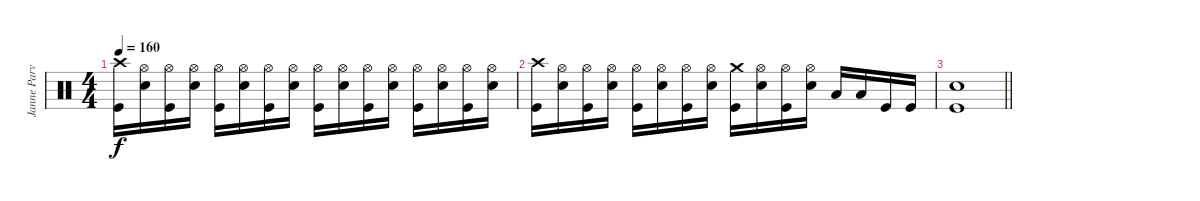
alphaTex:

\track ("Janne Parviainen" "Janne Parv") {instrument percussion}
\staff {score}
\articulation defaults
\ts (4 4)
\tempo 160
\clef neutral
\ks c
("Crash high (hit)" "Kick (hit)").16{dy f} ("Hi-Hat (open)" "Electric Snare (hit)").16 ("Hi-Hat (open)" "Kick (hit)").16 ("Hi-Hat (open)" "Electric Snare (hit)").16 ("Hi-Hat (open)" "Kick (hit)").16 ("Hi-Hat (open)" "Electric Snare (hit)").16 ("Hi-Hat (open)" "Kick (hit)").16 ("Hi-Hat (open)" "Electric Snare (hit)").16 ("Hi-Hat (open)" "Kick (hit)").16 ("Hi-Hat (open)" "Electric Snare (hit)").16 ("Hi-Hat (open)" "Kick (hit)").16 ("Hi-Hat (open)" "Electric Snare (hit)").16 ("Hi-Hat (open)" "Kick (hit)").16 ("Hi-Hat (open)" "Electric Snare (hit)").16 ("Hi-Hat (open)" "Kick (hit)").16 ("Hi-Hat (open)" "Electric Snare (hit)").16 |
("Crash high (hit)" "Kick (hit)").16 ("Hi-Hat (open)" "Electric Snare (hit)").16 ("Hi-Hat (open)" "Kick (hit)").16 ("Hi-Hat (open)" "Electric Snare (hit)").16 ("Hi-Hat (open)" "Kick (hit)").16 ("Hi-Hat (open)" "Electric Snare (hit)").16 ("Hi-Hat (open)" "Kick (hit)").16 ("Hi-Hat (open)" "Electric Snare (hit)").16 ("Crash medium (hit)" "Kick (hit)").16 ("Hi-Hat (open)" "Electric Snare (hit)").16 ("Hi-Hat (open)" "Kick (hit)").16 ("Hi-Hat (open)" "Electric Snare (hit)").16 "Low Tom (hit)".16 "Low Tom (hit)".16 "Kick (hit)".16 "Kick (hit)".16 |
\barLineRight lightlight
("Electric Snare (hit)" "Kick (hit)").1
